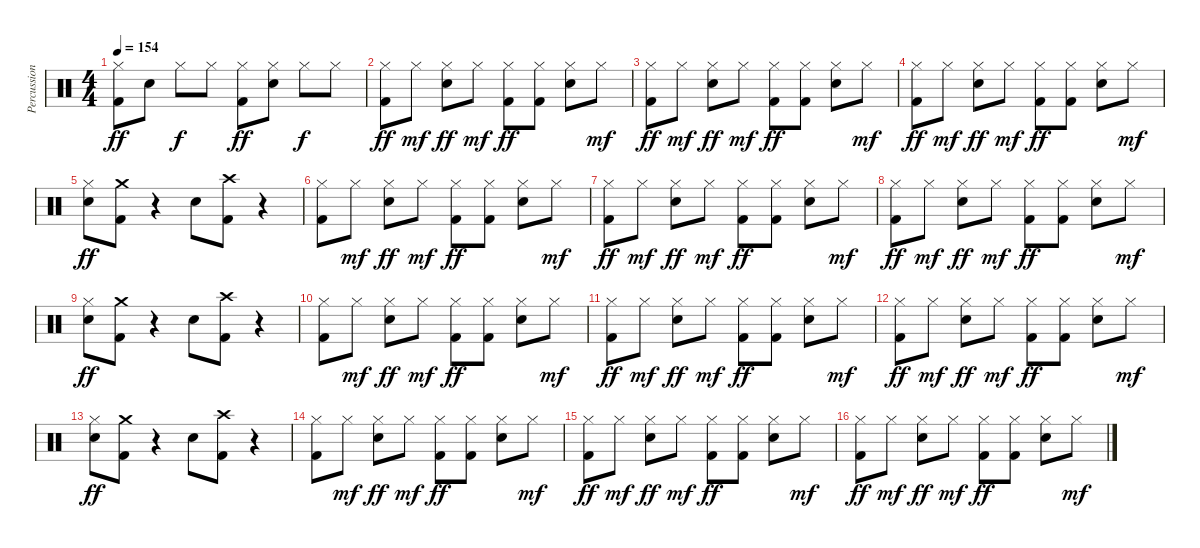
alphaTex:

\track ("Percussions" "Percussion") {instrument percussion}
\staff {score}
\articulation defaults
\ts (4 4)
\tempo 154
\clef neutral
\ks c
("Hi-Hat (closed)" "Kick (hit) 2").8{dy ff volume 12} "Electric Snare (hit)".8 "Hi-Hat (closed)".8{dy f} "Hi-Hat (closed)".8 ("Hi-Hat (closed)" "Kick (hit) 2").8{dy ff} ("Hi-Hat (closed)" "Electric Snare (hit)").8 "Hi-Hat (closed)".8{dy f} "Hi-Hat (closed)".8 |
("Hi-Hat (closed)" "Kick (hit) 2").8{dy ff} "Hi-Hat (closed)".8{dy mf} ("Hi-Hat (closed)" "Electric Snare (hit)").8{dy ff} "Hi-Hat (closed)".8{dy mf} ("Hi-Hat (closed)" "Kick (hit) 2").8{dy ff} ("Hi-Hat (closed)" "Kick (hit) 2").8 ("Hi-Hat (closed)" "Electric Snare (hit)").8 "Hi-Hat (closed)".8{dy mf} |
("Hi-Hat (closed)" "Kick (hit) 2").8{dy ff} "Hi-Hat (closed)".8{dy mf} ("Hi-Hat (closed)" "Electric Snare (hit)").8{dy ff} "Hi-Hat (closed)".8{dy mf} ("Hi-Hat (closed)" "Kick (hit) 2").8{dy ff} ("Hi-Hat (closed)" "Kick (hit) 2").8 ("Hi-Hat (closed)" "Electric Snare (hit)").8 "Hi-Hat (closed)".8{dy mf} |
("Hi-Hat (closed)" "Kick (hit) 2").8{dy ff} "Hi-Hat (closed)".8{dy mf} ("Hi-Hat (closed)" "Electric Snare (hit)").8{dy ff} "Hi-Hat (closed)".8{dy mf} ("Hi-Hat (closed)" "Kick (hit) 2").8{dy ff} ("Hi-Hat (closed)" "Kick (hit) 2").8 ("Hi-Hat (closed)" "Electric Snare (hit)").8 "Hi-Hat (closed)".8{dy mf} |
("Hi-Hat (closed)" "Electric Snare (hit)").8{dy ff} ("Crash medium (hit)" "Kick (hit) 2").8 r.4 "Electric Snare (hit)".8 ("Crash high (hit)" "Kick (hit) 2").8 r.4 |
("Hi-Hat (closed)" "Kick (hit) 2").8 "Hi-Hat (closed)".8{dy mf} ("Hi-Hat (closed)" "Electric Snare (hit)").8{dy ff} "Hi-Hat (closed)".8{dy mf} ("Hi-Hat (closed)" "Kick (hit) 2").8{dy ff} ("Hi-Hat (closed)" "Kick (hit) 2").8 ("Hi-Hat (closed)" "Electric Snare (hit)").8 "Hi-Hat (closed)".8{dy mf} |
("Hi-Hat (closed)" "Kick (hit) 2").8{dy ff} "Hi-Hat (closed)".8{dy mf} ("Hi-Hat (closed)" "Electric Snare (hit)").8{dy ff} "Hi-Hat (closed)".8{dy mf} ("Hi-Hat (closed)" "Kick (hit) 2").8{dy ff} ("Hi-Hat (closed)" "Kick (hit) 2").8 ("Hi-Hat (closed)" "Electric Snare (hit)").8 "Hi-Hat (closed)".8{dy mf} |
("Hi-Hat (closed)" "Kick (hit) 2").8{dy ff} "Hi-Hat (closed)".8{dy mf} ("Hi-Hat (closed)" "Electric Snare (hit)").8{dy ff} "Hi-Hat (closed)".8{dy mf} ("Hi-Hat (closed)" "Kick (hit) 2").8{dy ff} ("Hi-Hat (closed)" "Kick (hit) 2").8 ("Hi-Hat (closed)" "Electric Snare (hit)").8 "Hi-Hat (closed)".8{dy mf} |
("Hi-Hat (closed)" "Electric Snare (hit)").8{dy ff} ("Crash medium (hit)" "Kick (hit) 2").8 r.4 "Electric Snare (hit)".8 ("Crash high (hit)" "Kick (hit) 2").8 r.4 |
("Hi-Hat (closed)" "Kick (hit) 2").8 "Hi-Hat (closed)".8{dy mf} ("Hi-Hat (closed)" "Electric Snare (hit)").8{dy ff} "Hi-Hat (closed)".8{dy mf} ("Hi-Hat (closed)" "Kick (hit) 2").8{dy ff} ("Hi-Hat (closed)" "Kick (hit) 2").8 ("Hi-Hat (closed)" "Electric Snare (hit)").8 "Hi-Hat (closed)".8{dy mf} |
("Hi-Hat (closed)" "Kick (hit) 2").8{dy ff} "Hi-Hat (closed)".8{dy mf} ("Hi-Hat (closed)" "Electric Snare (hit)").8{dy ff} "Hi-Hat (closed)".8{dy mf} ("Hi-Hat (closed)" "Kick (hit) 2").8{dy ff} ("Hi-Hat (closed)" "Kick (hit) 2").8 ("Hi-Hat (closed)" "Electric Snare (hit)").8 "Hi-Hat (closed)".8{dy mf} |
("Hi-Hat (closed)" "Kick (hit) 2").8{dy ff} "Hi-Hat (closed)".8{dy mf} ("Hi-Hat (closed)" "Electric Snare (hit)").8{dy ff} "Hi-Hat (closed)".8{dy mf} ("Hi-Hat (closed)" "Kick (hit) 2").8{dy ff} ("Hi-Hat (closed)" "Kick (hit) 2").8 ("Hi-Hat (closed)" "Electric Snare (hit)").8 "Hi-Hat (closed)".8{dy mf} |
("Hi-Hat (closed)" "Electric Snare (hit)").8{dy ff} ("Crash medium (hit)" "Kick (hit) 2").8 r.4 "Electric Snare (hit)".8 ("Crash high (hit)" "Kick (hit) 2").8 r.4 |
("Hi-Hat (closed)" "Kick (hit) 2").8 "Hi-Hat (closed)".8{dy mf} ("Hi-Hat (closed)" "Electric Snare (hit)").8{dy ff} "Hi-Hat (closed)".8{dy mf} ("Hi-Hat (closed)" "Kick (hit) 2").8{dy ff} ("Hi-Hat (closed)" "Kick (hit) 2").8 ("Hi-Hat (closed)" "Electric Snare (hit)").8 "Hi-Hat (closed)".8{dy mf} |
("Hi-Hat (closed)" "Kick (hit) 2").8{dy ff} "Hi-Hat (closed)".8{dy mf} ("Hi-Hat (closed)" "Electric Snare (hit)").8{dy ff} "Hi-Hat (closed)".8{dy mf} ("Hi-Hat (closed)" "Kick (hit) 2").8{dy ff} ("Hi-Hat (closed)" "Kick (hit) 2").8 ("Hi-Hat (closed)" "Electric Snare (hit)").8 "Hi-Hat (closed)".8{dy mf} |
("Hi-Hat (closed)" "Kick (hit) 2").8{dy ff} "Hi-Hat (closed)".8{dy mf} ("Hi-Hat (closed)" "Electric Snare (hit)").8{dy ff} "Hi-Hat (closed)".8{dy mf} ("Hi-Hat (closed)" "Kick (hit) 2").8{dy ff} ("Hi-Hat (closed)" "Kick (hit) 2").8 ("Hi-Hat (closed)" "Electric Snare (hit)").8 "Hi-Hat (closed)".8{dy mf}
